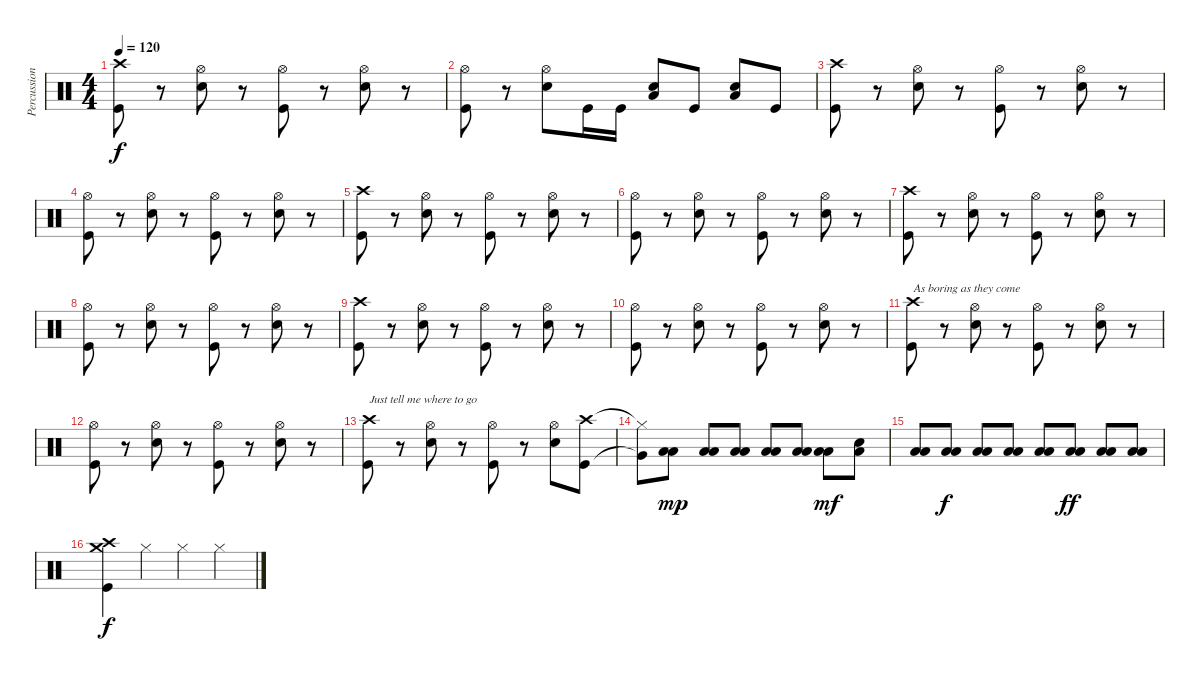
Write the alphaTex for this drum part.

\track ("Percussion" "Percussion") {instrument percussion}
\staff {score}
\articulation defaults
\ts (4 4)
\tempo 120
\clef neutral
\ks c
("Crash high (hit)" "Kick (hit)").8{dy f} r.8 ("Electric Snare (hit)" "Hi-Hat (open)").8 r.8 ("Hi-Hat (open)" "Kick (hit)").8 r.8 ("Electric Snare (hit)" "Hi-Hat (open)").8 r.8 |
("Hi-Hat (open)" "Kick (hit)").8 r.8 ("Electric Snare (hit)" "Hi-Hat (open)").8 "Kick (hit)".16 "Kick (hit)".16 ("Low Tom (hit)" "Electric Snare (hit)").8 "Kick (hit)".8 ("Low Floor Tom (hit)" "Electric Snare (hit)").8 "Kick (hit)".8 |
("Crash high (hit)" "Kick (hit)").8 r.8 ("Electric Snare (hit)" "Hi-Hat (open)").8 r.8 ("Hi-Hat (open)" "Kick (hit)").8 r.8 ("Electric Snare (hit)" "Hi-Hat (open)").8 r.8 |
("Hi-Hat (open)" "Kick (hit)").8 r.8 ("Electric Snare (hit)" "Hi-Hat (open)").8 r.8 ("Hi-Hat (open)" "Kick (hit)").8 r.8 ("Electric Snare (hit)" "Hi-Hat (open)").8 r.8 |
("Crash high (hit)" "Kick (hit)").8 r.8 ("Electric Snare (hit)" "Hi-Hat (open)").8 r.8 ("Hi-Hat (open)" "Kick (hit)").8 r.8 ("Electric Snare (hit)" "Hi-Hat (open)").8 r.8 |
("Hi-Hat (open)" "Kick (hit)").8 r.8 ("Electric Snare (hit)" "Hi-Hat (open)").8 r.8 ("Hi-Hat (open)" "Kick (hit)").8 r.8 ("Electric Snare (hit)" "Hi-Hat (open)").8 r.8 |
("Crash high (hit)" "Kick (hit)").8 r.8 ("Snare (hit) 2" "Hi-Hat (open)").8 r.8 ("Hi-Hat (open)" "Kick (hit)").8 r.8 ("Snare (hit) 2" "Hi-Hat (open)").8 r.8 |
("Hi-Hat (open)" "Kick (hit)").8 r.8 ("Snare (hit) 2" "Hi-Hat (open)").8 r.8 ("Hi-Hat (open)" "Kick (hit)").8 r.8 ("Snare (hit) 2" "Hi-Hat (open)").8 r.8 |
("Crash high (hit)" "Kick (hit)").8 r.8 ("Snare (hit) 2" "Hi-Hat (open)").8 r.8 ("Hi-Hat (open)" "Kick (hit)").8 r.8 ("Snare (hit) 2" "Hi-Hat (open)").8 r.8 |
("Hi-Hat (open)" "Kick (hit)").8 r.8 ("Snare (hit) 2" "Hi-Hat (open)").8 r.8 ("Hi-Hat (open)" "Kick (hit)").8 r.8 ("Snare (hit) 2" "Hi-Hat (open)").8 r.8 |
("Crash high (hit)" "Kick (hit)").8{txt "As boring as they come"} r.8 ("Snare (hit) 2" "Hi-Hat (open)").8 r.8 ("Hi-Hat (open)" "Kick (hit)").8 r.8 ("Snare (hit) 2" "Hi-Hat (open)").8 r.8 |
("Hi-Hat (open)" "Kick (hit)").8 r.8 ("Snare (hit) 2" "Hi-Hat (open)").8 r.8 ("Hi-Hat (open)" "Kick (hit)").8 r.8 ("Snare (hit) 2" "Hi-Hat (open)").8 r.8 |
("Crash high (hit)" "Kick (hit)").8{txt "Just tell me where to go"} r.8 ("Snare (hit) 2" "Hi-Hat (open)").8 r.8 ("Hi-Hat (open)" "Kick (hit)").8 r.8 ("Snare (hit) 2" "Hi-Hat (open)").8 ("Crash high (hit)" "Kick (hit)").8 |
("Hi-Hat (closed)"{t} "Very Low Tom (hit)"{t}).8 ("Low Floor Tom (hit)" "Low Tom (hit)").8{dy mp} ("Low Floor Tom (hit)" "Low Tom (hit)").8 ("Low Floor Tom (hit)" "Low Tom (hit)").8 ("Low Floor Tom (hit)" "Low Tom (hit)").8 ("Low Floor Tom (hit)" "Low Tom (hit)").8 ("Low Floor Tom (hit)" "Low Tom (hit)").8{dy mf} ("Low Floor Tom (hit)" "Electric Snare (hit)").8 |
("Low Floor Tom (hit)" "Low Tom (hit)").8 ("Low Floor Tom (hit)" "Low Tom (hit)").8{dy f} ("Low Floor Tom (hit)" "Low Tom (hit)").8 ("Low Floor Tom (hit)" "Low Tom (hit)").8 ("Low Floor Tom (hit)" "Low Tom (hit)").8 ("Low Floor Tom (hit)" "Low Tom (hit)").8{dy ff} ("Low Floor Tom (hit)" "Low Tom (hit)").8 ("Low Floor Tom (hit)" "Low Tom (hit)").8 |
("Crash high (hit)" "Crash medium (hit)" "Kick (hit)").4{dy f} "Hi-Hat (closed)".4 "Hi-Hat (closed)".4 "Hi-Hat (closed)".4
